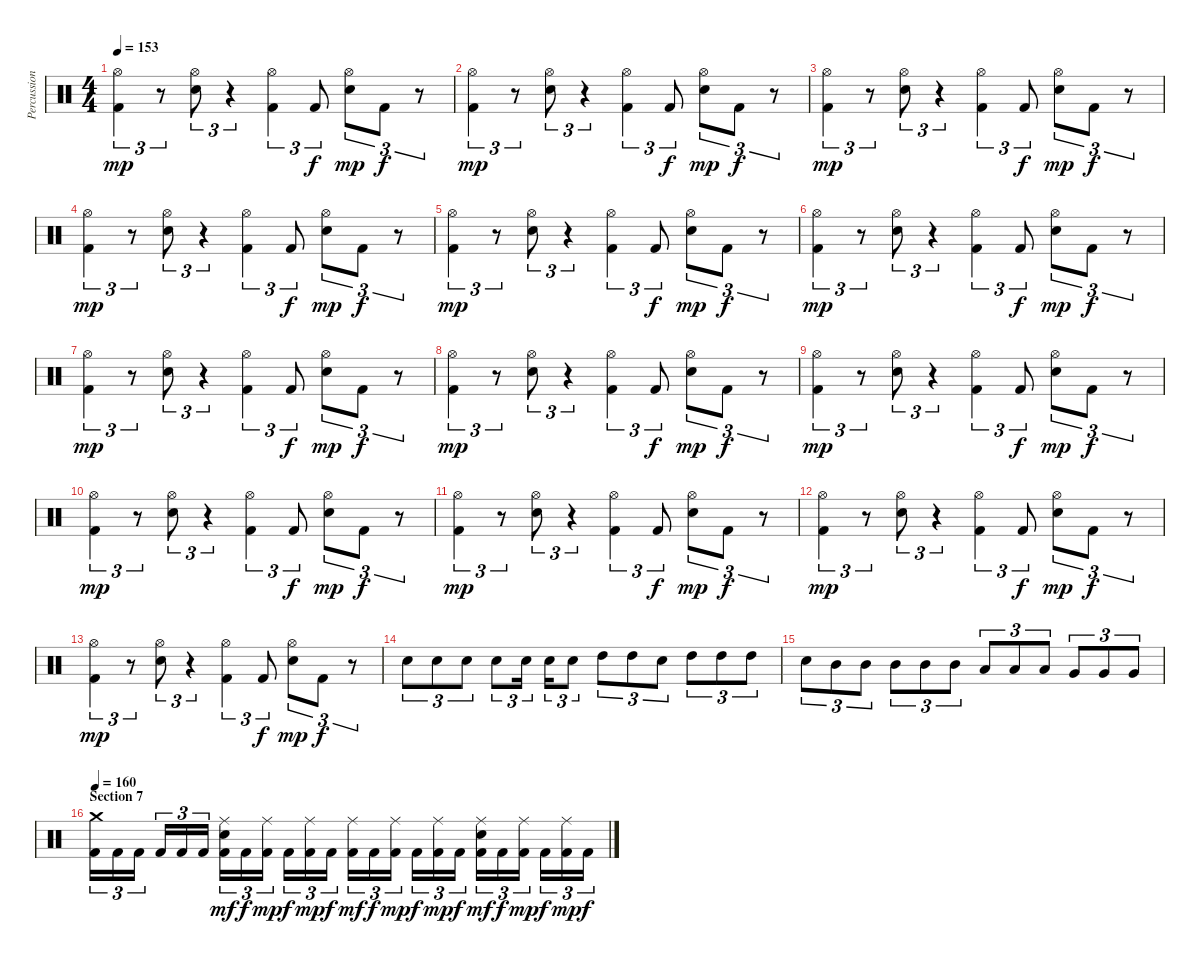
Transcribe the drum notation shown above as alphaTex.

\track ("Percussion" "Percussion") {instrument percussion}
\staff {score}
\articulation defaults
\ts (4 4)
\tempo 153
\clef neutral
\ks c
("Hi-Hat (open)" "Kick (hit) 2").4{tu (3 2) dy mp} r.8{tu (3 2)} ("Hi-Hat (open)" "Electric Snare (hit)").8{tu (3 2)} r.4{tu (3 2)} ("Hi-Hat (open)" "Kick (hit) 2").4{tu (3 2)} "Kick (hit) 2".8{tu (3 2) dy f} ("Hi-Hat (open)" "Electric Snare (hit)").8{tu (3 2) dy mp} "Kick (hit) 2".8{tu (3 2) dy f} r.8{tu (3 2)} |
("Hi-Hat (open)" "Kick (hit) 2").4{tu (3 2) dy mp} r.8{tu (3 2)} ("Hi-Hat (open)" "Electric Snare (hit)").8{tu (3 2)} r.4{tu (3 2)} ("Hi-Hat (open)" "Kick (hit) 2").4{tu (3 2)} "Kick (hit) 2".8{tu (3 2) dy f} ("Hi-Hat (open)" "Electric Snare (hit)").8{tu (3 2) dy mp} "Kick (hit) 2".8{tu (3 2) dy f} r.8{tu (3 2)} |
("Hi-Hat (open)" "Kick (hit) 2").4{tu (3 2) dy mp} r.8{tu (3 2)} ("Hi-Hat (open)" "Electric Snare (hit)").8{tu (3 2)} r.4{tu (3 2)} ("Hi-Hat (open)" "Kick (hit) 2").4{tu (3 2)} "Kick (hit) 2".8{tu (3 2) dy f} ("Hi-Hat (open)" "Electric Snare (hit)").8{tu (3 2) dy mp} "Kick (hit) 2".8{tu (3 2) dy f} r.8{tu (3 2)} |
("Hi-Hat (open)" "Kick (hit) 2").4{tu (3 2) dy mp} r.8{tu (3 2)} ("Hi-Hat (open)" "Electric Snare (hit)").8{tu (3 2)} r.4{tu (3 2)} ("Hi-Hat (open)" "Kick (hit) 2").4{tu (3 2)} "Kick (hit) 2".8{tu (3 2) dy f} ("Hi-Hat (open)" "Electric Snare (hit)").8{tu (3 2) dy mp} "Kick (hit) 2".8{tu (3 2) dy f} r.8{tu (3 2)} |
("Hi-Hat (open)" "Kick (hit) 2").4{tu (3 2) dy mp} r.8{tu (3 2)} ("Hi-Hat (open)" "Electric Snare (hit)").8{tu (3 2)} r.4{tu (3 2)} ("Hi-Hat (open)" "Kick (hit) 2").4{tu (3 2)} "Kick (hit) 2".8{tu (3 2) dy f} ("Hi-Hat (open)" "Electric Snare (hit)").8{tu (3 2) dy mp} "Kick (hit) 2".8{tu (3 2) dy f} r.8{tu (3 2)} |
("Hi-Hat (open)" "Kick (hit) 2").4{tu (3 2) dy mp} r.8{tu (3 2)} ("Hi-Hat (open)" "Electric Snare (hit)").8{tu (3 2)} r.4{tu (3 2)} ("Hi-Hat (open)" "Kick (hit) 2").4{tu (3 2)} "Kick (hit) 2".8{tu (3 2) dy f} ("Hi-Hat (open)" "Electric Snare (hit)").8{tu (3 2) dy mp} "Kick (hit) 2".8{tu (3 2) dy f} r.8{tu (3 2)} |
("Hi-Hat (open)" "Kick (hit) 2").4{tu (3 2) dy mp} r.8{tu (3 2)} ("Hi-Hat (open)" "Electric Snare (hit)").8{tu (3 2)} r.4{tu (3 2)} ("Hi-Hat (open)" "Kick (hit) 2").4{tu (3 2)} "Kick (hit) 2".8{tu (3 2) dy f} ("Hi-Hat (open)" "Electric Snare (hit)").8{tu (3 2) dy mp} "Kick (hit) 2".8{tu (3 2) dy f} r.8{tu (3 2)} |
("Hi-Hat (open)" "Kick (hit) 2").4{tu (3 2) dy mp} r.8{tu (3 2)} ("Hi-Hat (open)" "Electric Snare (hit)").8{tu (3 2)} r.4{tu (3 2)} ("Hi-Hat (open)" "Kick (hit) 2").4{tu (3 2)} "Kick (hit) 2".8{tu (3 2) dy f} ("Hi-Hat (open)" "Electric Snare (hit)").8{tu (3 2) dy mp} "Kick (hit) 2".8{tu (3 2) dy f} r.8{tu (3 2)} |
("Hi-Hat (open)" "Kick (hit) 2").4{tu (3 2) dy mp} r.8{tu (3 2)} ("Hi-Hat (open)" "Electric Snare (hit)").8{tu (3 2)} r.4{tu (3 2)} ("Hi-Hat (open)" "Kick (hit) 2").4{tu (3 2)} "Kick (hit) 2".8{tu (3 2) dy f} ("Hi-Hat (open)" "Electric Snare (hit)").8{tu (3 2) dy mp} "Kick (hit) 2".8{tu (3 2) dy f} r.8{tu (3 2)} |
("Hi-Hat (open)" "Kick (hit) 2").4{tu (3 2) dy mp} r.8{tu (3 2)} ("Hi-Hat (open)" "Electric Snare (hit)").8{tu (3 2)} r.4{tu (3 2)} ("Hi-Hat (open)" "Kick (hit) 2").4{tu (3 2)} "Kick (hit) 2".8{tu (3 2) dy f} ("Hi-Hat (open)" "Electric Snare (hit)").8{tu (3 2) dy mp} "Kick (hit) 2".8{tu (3 2) dy f} r.8{tu (3 2)} |
("Hi-Hat (open)" "Kick (hit) 2").4{tu (3 2) dy mp} r.8{tu (3 2)} ("Hi-Hat (open)" "Electric Snare (hit)").8{tu (3 2)} r.4{tu (3 2)} ("Hi-Hat (open)" "Kick (hit) 2").4{tu (3 2)} "Kick (hit) 2".8{tu (3 2) dy f} ("Hi-Hat (open)" "Electric Snare (hit)").8{tu (3 2) dy mp} "Kick (hit) 2".8{tu (3 2) dy f} r.8{tu (3 2)} |
("Hi-Hat (open)" "Kick (hit) 2").4{tu (3 2) dy mp} r.8{tu (3 2)} ("Hi-Hat (open)" "Electric Snare (hit)").8{tu (3 2)} r.4{tu (3 2)} ("Hi-Hat (open)" "Kick (hit) 2").4{tu (3 2)} "Kick (hit) 2".8{tu (3 2) dy f} ("Hi-Hat (open)" "Electric Snare (hit)").8{tu (3 2) dy mp} "Kick (hit) 2".8{tu (3 2) dy f} r.8{tu (3 2)} |
("Hi-Hat (open)" "Kick (hit) 2").4{tu (3 2) dy mp} r.8{tu (3 2)} ("Hi-Hat (open)" "Electric Snare (hit)").8{tu (3 2)} r.4{tu (3 2)} ("Hi-Hat (open)" "Kick (hit) 2").4{tu (3 2)} "Kick (hit) 2".8{tu (3 2) dy f} ("Hi-Hat (open)" "Electric Snare (hit)").8{tu (3 2) dy mp} "Kick (hit) 2".8{tu (3 2) dy f} r.8{tu (3 2)} |
"Electric Snare (hit)".8{tu (3 2)} "Electric Snare (hit)".8{tu (3 2)} "Electric Snare (hit)".8{tu (3 2)} "Electric Snare (hit)".8{tu (3 2)} "Electric Snare (hit)".16{tu (3 2)} "Electric Snare (hit)".16{tu (3 2)} "Electric Snare (hit)".8{tu (3 2)} "High Tom (hit)".8{tu (3 2)} "High Tom (hit)".8{tu (3 2)} "Electric Snare (hit)".8{tu (3 2)} "High Tom (hit)".8{tu (3 2)} "High Tom (hit)".8{tu (3 2)} "High Tom (hit)".8{tu (3 2)} |
"Electric Snare (hit)".8{tu (3 2)} "Mid Tom (hit)".8{tu (3 2)} "Mid Tom (hit)".8{tu (3 2)} "Mid Tom (hit)".8{tu (3 2)} "Mid Tom (hit)".8{tu (3 2)} "Mid Tom (hit)".8{tu (3 2)} "Low Tom (hit)".8{tu (3 2)} "Low Tom (hit)".8{tu (3 2)} "Low Tom (hit)".8{tu (3 2)} "Very Low Tom (hit)".8{tu (3 2)} "Very Low Tom (hit)".8{tu (3 2)} "Very Low Tom (hit)".8{tu (3 2)} |
\section ("" "Section 7")
\tempo 160
("Crash medium (hit)" "Kick (hit) 2").16{tu (3 2)} "Kick (hit) 2".16{tu (3 2)} "Kick (hit) 2".16{tu (3 2)} "Kick (hit) 2".16{tu (3 2)} "Kick (hit) 2".16{tu (3 2)} "Kick (hit) 2".16{tu (3 2)} ("Ride (middle)" "Electric Snare (hit)" "Kick (hit) 2").16{tu (3 2) dy mf} "Kick (hit) 2".16{tu (3 2) dy f} ("Ride (middle)" "Kick (hit) 2").16{tu (3 2) dy mp} "Kick (hit) 2".16{tu (3 2) dy f} ("Ride (middle)" "Kick (hit) 2").16{tu (3 2) dy mp} "Kick (hit) 2".16{tu (3 2) dy f} ("Ride (middle)" "Kick (hit) 2").16{tu (3 2) dy mf} "Kick (hit) 2".16{tu (3 2) dy f} ("Ride (middle)" "Kick (hit) 2").16{tu (3 2) dy mp} "Kick (hit) 2".16{tu (3 2) dy f} ("Ride (middle)" "Kick (hit) 2").16{tu (3 2) dy mp} "Kick (hit) 2".16{tu (3 2) dy f} ("Ride (middle)" "Electric Snare (hit)" "Kick (hit) 2").16{tu (3 2) dy mf} "Kick (hit) 2".16{tu (3 2) dy f} ("Ride (middle)" "Kick (hit) 2").16{tu (3 2) dy mp} "Kick (hit) 2".16{tu (3 2) dy f} ("Ride (middle)" "Kick (hit) 2").16{tu (3 2) dy mp} "Kick (hit) 2".16{tu (3 2) dy f}
